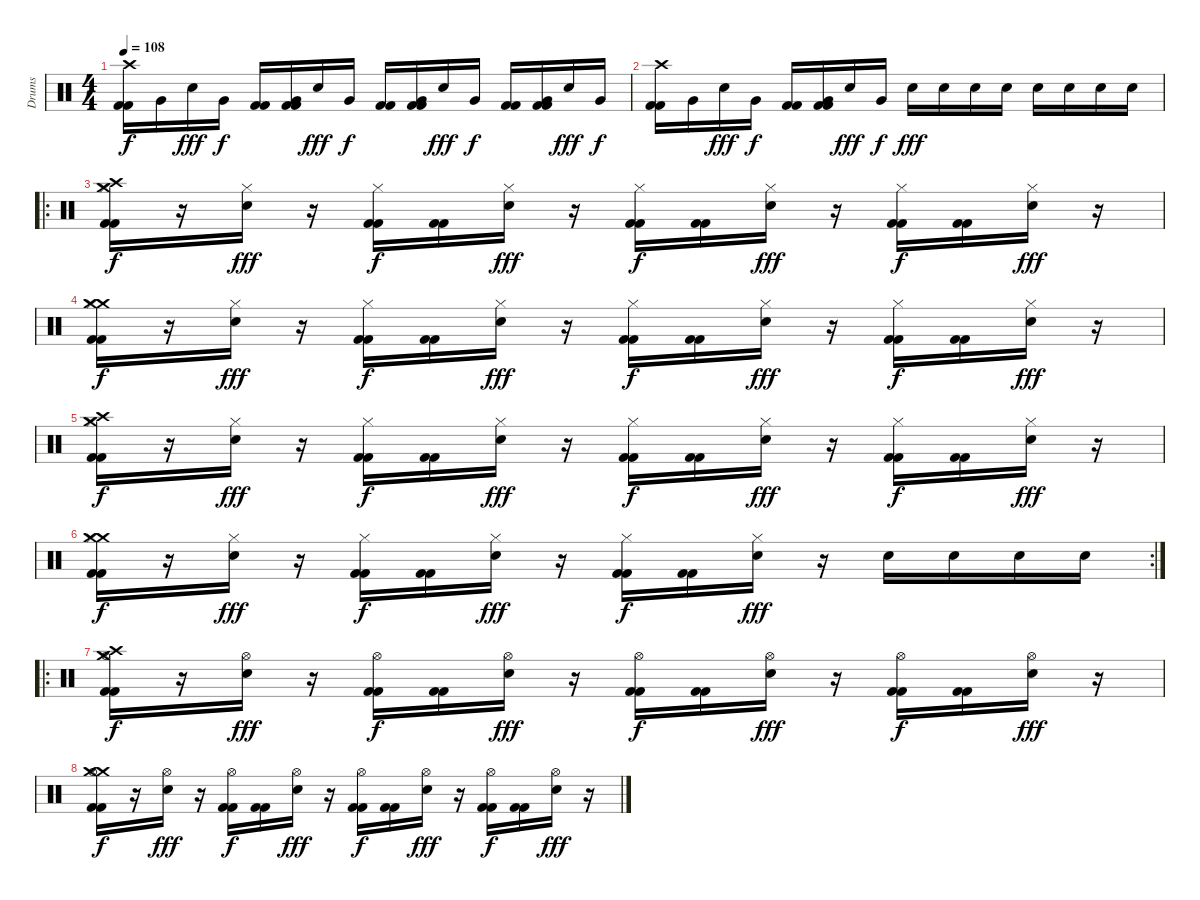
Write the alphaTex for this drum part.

\track ("Drums" "Drums") {instrument percussion}
\staff {score}
\articulation defaults
\ts (4 4)
\tempo 108
\clef neutral
\ks c
("Crash high (hit)" "Kick (hit) 2" "Kick (hit) 2").16{dy f} "Very Low Tom (hit)".16 "Electric Snare (hit)".16{dy fff} "Very Low Tom (hit)".16{dy f} ("Kick (hit) 2" "Kick (hit) 2").16 ("Very Low Tom (hit)" "Kick (hit) 2" "Kick (hit) 2").16 "Electric Snare (hit)".16{dy fff} "Very Low Tom (hit)".16{dy f} ("Kick (hit) 2" "Kick (hit) 2").16 ("Very Low Tom (hit)" "Kick (hit) 2" "Kick (hit) 2").16 "Electric Snare (hit)".16{dy fff} "Very Low Tom (hit)".16{dy f} ("Kick (hit) 2" "Kick (hit) 2").16 ("Very Low Tom (hit)" "Kick (hit) 2" "Kick (hit) 2").16 "Electric Snare (hit)".16{dy fff} "Very Low Tom (hit)".16{dy f} |
("Crash high (hit)" "Kick (hit) 2" "Kick (hit) 2").16 "Very Low Tom (hit)".16 "Electric Snare (hit)".16{dy fff} "Very Low Tom (hit)".16{dy f} ("Kick (hit) 2" "Kick (hit) 2").16 ("Very Low Tom (hit)" "Kick (hit) 2" "Kick (hit) 2").16 "Electric Snare (hit)".16{dy fff} "Very Low Tom (hit)".16{dy f} "Electric Snare (hit)".16{dy fff} "Electric Snare (hit)".16 "Electric Snare (hit)".16 "Electric Snare (hit)".16 "Electric Snare (hit)".16 "Electric Snare (hit)".16 "Electric Snare (hit)".16 "Electric Snare (hit)".16 |
\ro
("Crash high (hit)" "Crash medium (hit)" "Hi-Hat (closed)" "Kick (hit) 2" "Kick (hit) 2").16{dy f} r.16 ("Hi-Hat (closed)" "Electric Snare (hit)").16{dy fff} r.16 ("Hi-Hat (closed)" "Kick (hit) 2" "Kick (hit) 2").16{dy f} ("Kick (hit) 2" "Kick (hit) 2").16 ("Hi-Hat (closed)" "Electric Snare (hit)").16{dy fff} r.16 ("Hi-Hat (closed)" "Kick (hit) 2" "Kick (hit) 2").16{dy f} ("Kick (hit) 2" "Kick (hit) 2").16 ("Hi-Hat (closed)" "Electric Snare (hit)").16{dy fff} r.16 ("Hi-Hat (closed)" "Kick (hit) 2" "Kick (hit) 2").16{dy f} ("Kick (hit) 2" "Kick (hit) 2").16 ("Hi-Hat (closed)" "Electric Snare (hit)").16{dy fff} r.16 |
("Crash medium (hit)" "Crash medium (hit)" "Hi-Hat (closed)" "Kick (hit) 2" "Kick (hit) 2").16{dy f} r.16 ("Hi-Hat (closed)" "Electric Snare (hit)").16{dy fff} r.16 ("Hi-Hat (closed)" "Kick (hit) 2" "Kick (hit) 2").16{dy f} ("Kick (hit) 2" "Kick (hit) 2").16 ("Hi-Hat (closed)" "Electric Snare (hit)").16{dy fff} r.16 ("Hi-Hat (closed)" "Kick (hit) 2" "Kick (hit) 2").16{dy f} ("Kick (hit) 2" "Kick (hit) 2").16 ("Hi-Hat (closed)" "Electric Snare (hit)").16{dy fff} r.16 ("Hi-Hat (closed)" "Kick (hit) 2" "Kick (hit) 2").16{dy f} ("Kick (hit) 2" "Kick (hit) 2").16 ("Hi-Hat (closed)" "Electric Snare (hit)").16{dy fff} r.16 |
("Crash high (hit)" "Crash medium (hit)" "Hi-Hat (closed)" "Kick (hit) 2" "Kick (hit) 2").16{dy f} r.16 ("Hi-Hat (closed)" "Electric Snare (hit)").16{dy fff} r.16 ("Hi-Hat (closed)" "Kick (hit) 2" "Kick (hit) 2").16{dy f} ("Kick (hit) 2" "Kick (hit) 2").16 ("Hi-Hat (closed)" "Electric Snare (hit)").16{dy fff} r.16 ("Hi-Hat (closed)" "Kick (hit) 2" "Kick (hit) 2").16{dy f} ("Kick (hit) 2" "Kick (hit) 2").16 ("Hi-Hat (closed)" "Electric Snare (hit)").16{dy fff} r.16 ("Hi-Hat (closed)" "Kick (hit) 2" "Kick (hit) 2").16{dy f} ("Kick (hit) 2" "Kick (hit) 2").16 ("Hi-Hat (closed)" "Electric Snare (hit)").16{dy fff} r.16 |
\rc 2
("Crash medium (hit)" "Crash medium (hit)" "Hi-Hat (closed)" "Kick (hit) 2" "Kick (hit) 2").16{dy f} r.16 ("Hi-Hat (closed)" "Electric Snare (hit)").16{dy fff} r.16 ("Hi-Hat (closed)" "Kick (hit) 2" "Kick (hit) 2").16{dy f} ("Kick (hit) 2" "Kick (hit) 2").16 ("Hi-Hat (closed)" "Electric Snare (hit)").16{dy fff} r.16 ("Hi-Hat (closed)" "Kick (hit) 2" "Kick (hit) 2").16{dy f} ("Kick (hit) 2" "Kick (hit) 2").16 ("Hi-Hat (closed)" "Electric Snare (hit)").16{dy fff} r.16 "Electric Snare (hit)".16 "Electric Snare (hit)".16 "Electric Snare (hit)".16 "Electric Snare (hit)".16 |
\ro
("Crash high (hit)" "Crash medium (hit)" "Hi-Hat (open)" "Kick (hit) 2" "Kick (hit) 2").16{dy f} r.16 ("Hi-Hat (open)" "Electric Snare (hit)").16{dy fff} r.16 ("Hi-Hat (open)" "Kick (hit) 2" "Kick (hit) 2").16{dy f} ("Kick (hit) 2" "Kick (hit) 2").16 ("Hi-Hat (open)" "Electric Snare (hit)").16{dy fff} r.16 ("Hi-Hat (open)" "Kick (hit) 2" "Kick (hit) 2").16{dy f} ("Kick (hit) 2" "Kick (hit) 2").16 ("Hi-Hat (open)" "Electric Snare (hit)").16{dy fff} r.16 ("Hi-Hat (open)" "Kick (hit) 2" "Kick (hit) 2").16{dy f} ("Kick (hit) 2" "Kick (hit) 2").16 ("Hi-Hat (open)" "Electric Snare (hit)").16{dy fff} r.16 |
("Crash medium (hit)" "Crash medium (hit)" "Hi-Hat (open)" "Kick (hit) 2" "Kick (hit) 2").16{dy f} r.16 ("Hi-Hat (open)" "Electric Snare (hit)").16{dy fff} r.16 ("Hi-Hat (open)" "Kick (hit) 2" "Kick (hit) 2").16{dy f} ("Kick (hit) 2" "Kick (hit) 2").16 ("Hi-Hat (open)" "Electric Snare (hit)").16{dy fff} r.16 ("Hi-Hat (open)" "Kick (hit) 2" "Kick (hit) 2").16{dy f} ("Kick (hit) 2" "Kick (hit) 2").16 ("Hi-Hat (open)" "Electric Snare (hit)").16{dy fff} r.16 ("Hi-Hat (open)" "Kick (hit) 2" "Kick (hit) 2").16{dy f} ("Kick (hit) 2" "Kick (hit) 2").16 ("Hi-Hat (open)" "Electric Snare (hit)").16{dy fff} r.16
